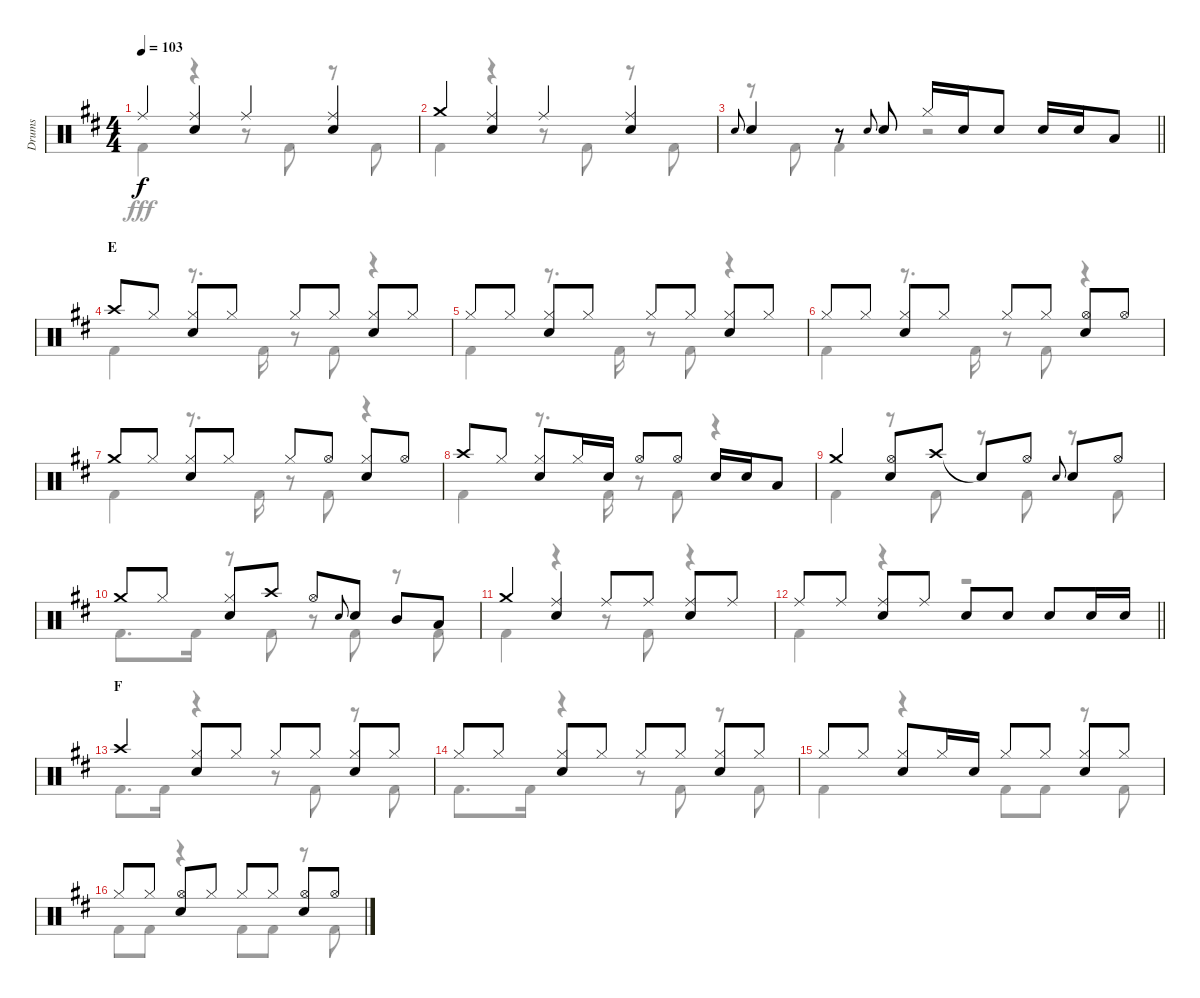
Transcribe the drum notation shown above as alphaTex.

\track ("Drums" "Drums") {instrument percussion}
\staff {score}
\articulation defaults
\voice
\ts (4 4)
\tempo 103
\clef neutral
\ks d "Ride (middle)".4{dy f}
("Ride (middle)" "Snare (hit) 2").4 "Ride (middle)".4 ("Ride (middle)" "Snare (hit) 2").4 |
"Crash medium (hit)".4 ("Ride (middle)" "Snare (hit) 2").4 "Ride (middle)".4 ("Ride (middle)" "Snare (hit) 2").4 |
\barLineRight lightlight "Snare (hit) 2".8{gr onbeat} "Snare (hit) 2".4
r.8 "Snare (hit) 2".8{gr onbeat} "Snare (hit) 2".8 "Hi-Hat (closed)".16 "Snare (hit) 2".16 "Snare (hit) 2".8 "Snare (hit) 2".16 "Snare (hit) 2".16 "Low Tom (hit)".8 |
\section ("" "E")
"Crash high (hit)".8 "Hi-Hat (closed)".8 ("Hi-Hat (closed)" "Snare (hit) 2").8 "Hi-Hat (closed)".8 "Hi-Hat (closed)".8 "Hi-Hat (closed)".8 ("Hi-Hat (closed)" "Snare (hit) 2").8 "Hi-Hat (closed)".8 |
"Hi-Hat (closed)".8 "Hi-Hat (closed)".8 ("Hi-Hat (closed)" "Snare (hit) 2").8 "Hi-Hat (closed)".8 "Hi-Hat (closed)".8 "Hi-Hat (closed)".8 ("Hi-Hat (closed)" "Snare (hit) 2").8 "Hi-Hat (closed)".8 |
"Hi-Hat (closed)".8 "Hi-Hat (closed)".8 ("Hi-Hat (closed)" "Snare (hit) 2").8 "Hi-Hat (closed)".8 "Hi-Hat (closed)".8 "Hi-Hat (closed)".8 ("Hi-Hat (open)" "Snare (hit) 2").8 "Hi-Hat (open)".8 |
"Crash medium (hit)".8 "Hi-Hat (closed)".8 ("Hi-Hat (closed)" "Snare (hit) 2").8 "Hi-Hat (closed)".8 "Hi-Hat (closed)".8 "Hi-Hat (open)".8 ("Hi-Hat (closed)" "Snare (hit) 2").8 "Hi-Hat (open)".8 |
"Crash high (hit)".8 "Hi-Hat (closed)".8 ("Hi-Hat (closed)" "Snare (hit) 2").8 "Hi-Hat (closed)".16 "Snare (hit) 2".16 "Hi-Hat (open)".8 "Hi-Hat (open)".8 "Snare (hit) 2".16 "Snare (hit) 2".16 "Low Tom (hit)".8 |
"Crash medium (hit)".4 ("Hi-Hat (open)" "Snare (hit) 2").8 "Crash high (hit)".8 "Snare (hit)"{t}.8 "Hi-Hat (open)".8 "Snare (hit) 2".8{gr onbeat} "Snare (hit) 2".8 "Hi-Hat (open)".8 |
"Crash medium (hit)".8 "Hi-Hat (closed)".8 ("Hi-Hat (closed)" "Snare (hit) 2").8 "Crash high (hit)".8 "Hi-Hat (open)".8 "Snare (hit) 2".8{gr onbeat} "Snare (hit) 2".8 "Mid Tom (hit)".8 "Low Tom (hit)".8 |
"Crash medium (hit)".4 ("Ride (middle)" "Snare (hit) 2").4 "Ride (middle)".8 "Ride (middle)".8 ("Ride (middle)" "Snare (hit) 2").8 "Ride (middle)".8 |
\barLineRight lightlight "Ride (middle)".8 "Ride (middle)".8
("Ride (middle)" "Snare (hit) 2").8 "Ride (middle)".8 "Snare (hit) 2".8 "Snare (hit) 2".8 "Snare (hit) 2".8 "Snare (hit) 2".16 "Snare (hit) 2".16 |
\section ("" "F")
"Crash high (hit)".4 ("Hi-Hat (closed)" "Snare (hit) 2").8 "Hi-Hat (closed)".8 "Hi-Hat (closed)".8 "Hi-Hat (closed)".8 ("Hi-Hat (closed)" "Snare (hit) 2").8 "Hi-Hat (closed)".8 |
"Hi-Hat (closed)".8 "Hi-Hat (closed)".8 ("Hi-Hat (closed)" "Snare (hit) 2").8 "Hi-Hat (closed)".8 "Hi-Hat (closed)".8 "Hi-Hat (closed)".8 ("Hi-Hat (closed)" "Snare (hit) 2").8 "Hi-Hat (closed)".8 |
"Hi-Hat (closed)".8 "Hi-Hat (closed)".8 ("Hi-Hat (closed)" "Snare (hit) 2").8 "Hi-Hat (closed)".16 "Snare (hit) 2".16 "Hi-Hat (closed)".8 "Hi-Hat (closed)".8 ("Hi-Hat (closed)" "Snare (hit) 2").8 "Hi-Hat (closed)".8 |
"Hi-Hat (closed)".8 "Hi-Hat (closed)".8 ("Hi-Hat (open)" "Snare (hit) 2").8 "Hi-Hat (closed)".8 "Hi-Hat (closed)".8 "Hi-Hat (closed)".8 ("Hi-Hat (open)" "Snare (hit) 2").8 "Hi-Hat (open)".8
\voice
\clef neutral
\ottava regular
\simile none
\ks d "Kick (hit) 2".4{dy fff}
r.4 r.8 "Kick (hit) 2".8 r.8 "Kick (hit) 2".8 |
"Kick (hit) 2".4 r.4 r.8 "Kick (hit) 2".8 r.8 "Kick (hit) 2".8 |
\barLineRight lightlight
r.8 "Kick (hit) 2".8 "Kick (hit) 2".4 r.2 |
"Kick (hit) 2".4 r.8{d} "Kick (hit) 2".16 r.8 "Kick (hit) 2".8 r.4 |
"Kick (hit) 2".4 r.8{d} "Kick (hit) 2".16 r.8 "Kick (hit) 2".8 r.4 |
"Kick (hit) 2".4 r.8{d} "Kick (hit) 2".16 r.8 "Kick (hit) 2".8 r.4 |
"Kick (hit) 2".4 r.8{d} "Kick (hit) 2".16 r.8 "Kick (hit) 2".8 r.4 |
"Kick (hit) 2".4 r.8{d} "Kick (hit) 2".16 r.8 "Kick (hit) 2".8 r.4 |
"Kick (hit) 2".4 r.8 "Kick (hit) 2".8 r.8 "Kick (hit) 2".8 r.8 "Kick (hit) 2".8 |
"Kick (hit) 2".8{d} "Kick (hit) 2".16 r.8 "Kick (hit) 2".8 r.8 "Kick (hit) 2".8 r.8 "Kick (hit) 2".8 |
"Kick (hit) 2".4 r.4 r.8 "Kick (hit) 2".8 r.4 |
\barLineRight lightlight "Kick (hit) 2".4
r.4 r.2 |
"Kick (hit) 2".8{d} "Kick (hit) 2".16 r.4 r.8 "Kick (hit) 2".8 r.8 "Kick (hit) 2".8 |
"Kick (hit) 2".8{d} "Kick (hit) 2".16 r.4 r.8 "Kick (hit) 2".8 r.8 "Kick (hit) 2".8 |
"Kick (hit) 2".4 r.4 "Kick (hit) 2".8 "Kick (hit) 2".8 r.8 "Kick (hit) 2".8 |
"Kick (hit) 2".8 "Kick (hit) 2".8 r.4 "Kick (hit) 2".8 "Kick (hit) 2".8 r.8 "Kick (hit) 2".8
